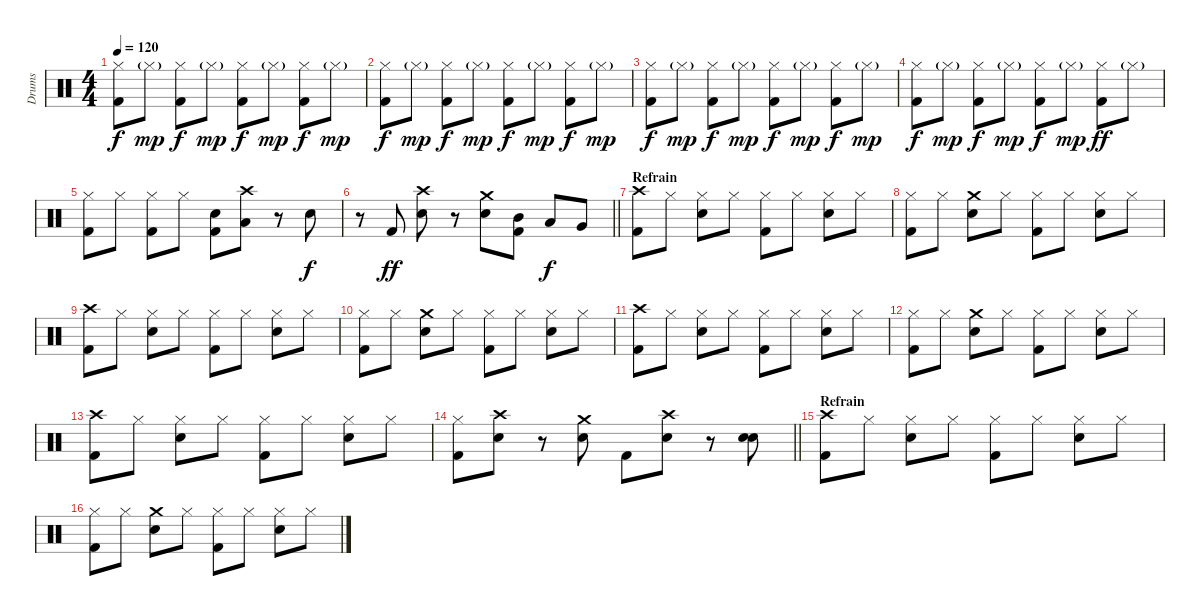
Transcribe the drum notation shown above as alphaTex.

\track ("Drums" "Drums") {instrument percussion}
\staff {score}
\articulation defaults
\ts (4 4)
\tempo 120
\clef neutral
\ks c
("Hi-Hat (closed)" "Kick (hit) 2").8{dy f} "Hi-Hat (closed)"{g}.8{dy mp} ("Hi-Hat (closed)" "Kick (hit) 2").8{dy f} "Hi-Hat (closed)"{g}.8{dy mp} ("Hi-Hat (closed)" "Kick (hit) 2").8{dy f} "Hi-Hat (closed)"{g}.8{dy mp} ("Hi-Hat (closed)" "Kick (hit) 2").8{dy f} "Hi-Hat (closed)"{g}.8{dy mp} |
("Hi-Hat (closed)" "Kick (hit) 2").8{dy f} "Hi-Hat (closed)"{g}.8{dy mp} ("Hi-Hat (closed)" "Kick (hit) 2").8{dy f} "Hi-Hat (closed)"{g}.8{dy mp} ("Hi-Hat (closed)" "Kick (hit) 2").8{dy f} "Hi-Hat (closed)"{g}.8{dy mp} ("Hi-Hat (closed)" "Kick (hit) 2").8{dy f} "Hi-Hat (closed)"{g}.8{dy mp} |
("Hi-Hat (closed)" "Kick (hit) 2").8{dy f} "Hi-Hat (closed)"{g}.8{dy mp} ("Hi-Hat (closed)" "Kick (hit) 2").8{dy f} "Hi-Hat (closed)"{g}.8{dy mp} ("Hi-Hat (closed)" "Kick (hit) 2").8{dy f} "Hi-Hat (closed)"{g}.8{dy mp} ("Hi-Hat (closed)" "Kick (hit) 2").8{dy f} "Hi-Hat (closed)"{g}.8{dy mp} |
("Hi-Hat (closed)" "Kick (hit) 2").8{dy f} "Hi-Hat (closed)"{g}.8{dy mp} ("Hi-Hat (closed)" "Kick (hit) 2").8{dy f} "Hi-Hat (closed)"{g}.8{dy mp} ("Hi-Hat (closed)" "Kick (hit) 2").8{dy f} "Hi-Hat (closed)"{g}.8{dy mp} ("Hi-Hat (closed)" "Kick (hit) 2").8{dy ff} "Hi-Hat (closed)"{g}.8 |
("Hi-Hat (closed)" "Kick (hit) 2").8 "Hi-Hat (closed)".8 ("Hi-Hat (closed)" "Kick (hit) 2").8 "Hi-Hat (closed)".8 ("Snare (hit) 2" "Kick (hit) 2").8 ("Crash high (hit)" "Low Tom (hit)").8 r.8 "Snare (hit) 2".8{dy f} |
\barLineRight lightlight
r.8 "Kick (hit) 2".8{dy ff} ("Crash high (hit)" "Snare (hit) 2").8 r.8 ("Crash medium (hit)" "Snare (hit) 2").8 ("Mid Tom (hit)" "Kick (hit) 2").8 "Low Tom (hit)".8{dy f} "Very Low Tom (hit)".8 |
\section ("" "Refrain")
("Crash high (hit)" "Kick (hit) 2").8 "Hi-Hat (closed)".8 ("Hi-Hat (closed)" "Snare (hit) 2").8 "Hi-Hat (closed)".8 ("Hi-Hat (closed)" "Kick (hit) 2").8 "Hi-Hat (closed)".8 ("Hi-Hat (closed)" "Snare (hit) 2").8 "Hi-Hat (closed)".8 |
("Hi-Hat (closed)" "Kick (hit) 2").8 "Hi-Hat (closed)".8 ("Crash medium (hit)" "Snare (hit) 2").8 "Hi-Hat (closed)".8 ("Hi-Hat (closed)" "Kick (hit) 2").8 "Hi-Hat (closed)".8 ("Hi-Hat (closed)" "Snare (hit) 2").8 "Hi-Hat (closed)".8 |
("Crash high (hit)" "Kick (hit) 2").8 "Hi-Hat (closed)".8 ("Hi-Hat (closed)" "Snare (hit) 2").8 "Hi-Hat (closed)".8 ("Hi-Hat (closed)" "Kick (hit) 2").8 "Hi-Hat (closed)".8 ("Hi-Hat (closed)" "Snare (hit) 2").8 "Hi-Hat (closed)".8 |
("Hi-Hat (closed)" "Kick (hit) 2").8 "Hi-Hat (closed)".8 ("Crash medium (hit)" "Snare (hit) 2").8 "Hi-Hat (closed)".8 ("Hi-Hat (closed)" "Kick (hit) 2").8 "Hi-Hat (closed)".8 ("Hi-Hat (closed)" "Snare (hit) 2").8 "Hi-Hat (closed)".8 |
("Crash high (hit)" "Kick (hit) 2").8 "Hi-Hat (closed)".8 ("Hi-Hat (closed)" "Snare (hit) 2").8 "Hi-Hat (closed)".8 ("Hi-Hat (closed)" "Kick (hit) 2").8 "Hi-Hat (closed)".8 ("Hi-Hat (closed)" "Snare (hit) 2").8 "Hi-Hat (closed)".8 |
("Hi-Hat (closed)" "Kick (hit) 2").8 "Hi-Hat (closed)".8 ("Crash medium (hit)" "Snare (hit) 2").8 "Hi-Hat (closed)".8 ("Hi-Hat (closed)" "Kick (hit) 2").8 "Hi-Hat (closed)".8 ("Hi-Hat (closed)" "Snare (hit) 2").8 "Hi-Hat (closed)".8 |
("Crash high (hit)" "Kick (hit) 2").8 "Hi-Hat (closed)".8 ("Hi-Hat (closed)" "Snare (hit) 2").8 "Hi-Hat (closed)".8 ("Hi-Hat (closed)" "Kick (hit) 2").8 "Hi-Hat (closed)".8 ("Hi-Hat (closed)" "Snare (hit) 2").8 "Hi-Hat (closed)".8 |
\barLineRight lightlight
("Hi-Hat (closed)" "Kick (hit) 2").8 ("Crash high (hit)" "Snare (hit) 2").8 r.8 ("Crash medium (hit)" "Snare (hit) 2").8 "Kick (hit) 2".8 ("Crash high (hit)" "Snare (hit) 2").8 r.8 ("Snare (hit) 2" "Snare (hit) 2").8 |
\section ("" "Refrain")
("Crash high (hit)" "Kick (hit) 2").8 "Hi-Hat (closed)".8 ("Hi-Hat (closed)" "Snare (hit) 2").8 "Hi-Hat (closed)".8 ("Hi-Hat (closed)" "Kick (hit) 2").8 "Hi-Hat (closed)".8 ("Hi-Hat (closed)" "Snare (hit) 2").8 "Hi-Hat (closed)".8 |
("Hi-Hat (closed)" "Kick (hit) 2").8 "Hi-Hat (closed)".8 ("Crash medium (hit)" "Snare (hit) 2").8 "Hi-Hat (closed)".8 ("Hi-Hat (closed)" "Kick (hit) 2").8 "Hi-Hat (closed)".8 ("Hi-Hat (closed)" "Snare (hit) 2").8 "Hi-Hat (closed)".8
